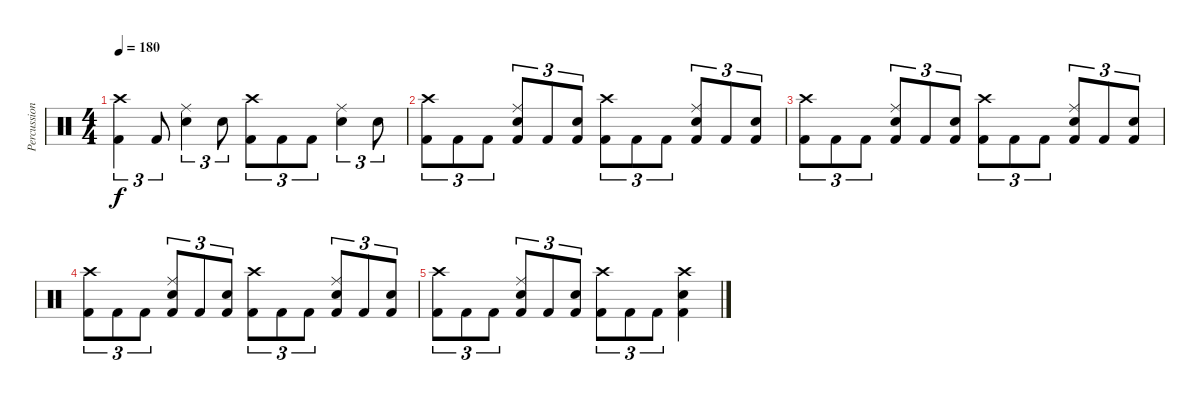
\track ("Percussion" "Percussion") {instrument percussion}
\staff {score}
\articulation defaults
\ts (4 4)
\tempo 180
\clef neutral
\ks c
("Crash high (hit)" "Kick (hit) 2").4{tu (3 2) dy f} "Kick (hit) 2".8{tu (3 2)} ("Ride (middle)" "Electric Snare (hit)").4{tu (3 2)} "Electric Snare (hit)".8{tu (3 2)} ("Crash high (hit)" "Kick (hit) 2").8{tu (3 2)} "Kick (hit) 2".8{tu (3 2)} "Kick (hit) 2".8{tu (3 2)} ("Ride (middle)" "Electric Snare (hit)").4{tu (3 2)} "Electric Snare (hit)".8{tu (3 2)} |
("Crash high (hit)" "Kick (hit) 2").8{tu (3 2)} "Kick (hit) 2".8{tu (3 2)} "Kick (hit) 2".8{tu (3 2)} ("Ride (middle)" "Electric Snare (hit)" "Kick (hit) 2").8{tu (3 2)} "Kick (hit) 2".8{tu (3 2)} ("Electric Snare (hit)" "Kick (hit) 2").8{tu (3 2)} ("Crash high (hit)" "Kick (hit) 2").8{tu (3 2)} "Kick (hit) 2".8{tu (3 2)} "Kick (hit) 2".8{tu (3 2)} ("Ride (middle)" "Electric Snare (hit)" "Kick (hit) 2").8{tu (3 2)} "Kick (hit) 2".8{tu (3 2)} ("Electric Snare (hit)" "Kick (hit) 2").8{tu (3 2)} |
("Crash high (hit)" "Kick (hit) 2").8{tu (3 2)} "Kick (hit) 2".8{tu (3 2)} "Kick (hit) 2".8{tu (3 2)} ("Ride (middle)" "Electric Snare (hit)" "Kick (hit) 2").8{tu (3 2)} "Kick (hit) 2".8{tu (3 2)} ("Electric Snare (hit)" "Kick (hit) 2").8{tu (3 2)} ("Crash high (hit)" "Kick (hit) 2").8{tu (3 2)} "Kick (hit) 2".8{tu (3 2)} "Kick (hit) 2".8{tu (3 2)} ("Ride (middle)" "Electric Snare (hit)" "Kick (hit) 2").8{tu (3 2)} "Kick (hit) 2".8{tu (3 2)} ("Electric Snare (hit)" "Kick (hit) 2").8{tu (3 2)} |
("Crash high (hit)" "Kick (hit) 2").8{tu (3 2)} "Kick (hit) 2".8{tu (3 2)} "Kick (hit) 2".8{tu (3 2)} ("Ride (middle)" "Electric Snare (hit)" "Kick (hit) 2").8{tu (3 2)} "Kick (hit) 2".8{tu (3 2)} ("Electric Snare (hit)" "Kick (hit) 2").8{tu (3 2)} ("Crash high (hit)" "Kick (hit) 2").8{tu (3 2)} "Kick (hit) 2".8{tu (3 2)} "Kick (hit) 2".8{tu (3 2)} ("Ride (middle)" "Electric Snare (hit)" "Kick (hit) 2").8{tu (3 2)} "Kick (hit) 2".8{tu (3 2)} ("Electric Snare (hit)" "Kick (hit) 2").8{tu (3 2)} |
("Crash high (hit)" "Kick (hit) 2").8{tu (3 2)} "Kick (hit) 2".8{tu (3 2)} "Kick (hit) 2".8{tu (3 2)} ("Ride (middle)" "Electric Snare (hit)" "Kick (hit) 2").8{tu (3 2)} "Kick (hit) 2".8{tu (3 2)} ("Electric Snare (hit)" "Kick (hit) 2").8{tu (3 2)} ("Crash high (hit)" "Kick (hit) 2").8{tu (3 2)} "Kick (hit) 2".8{tu (3 2)} "Kick (hit) 2".8{tu (3 2)} ("Crash high (hit)" "Electric Snare (hit)" "Kick (hit) 2").4
